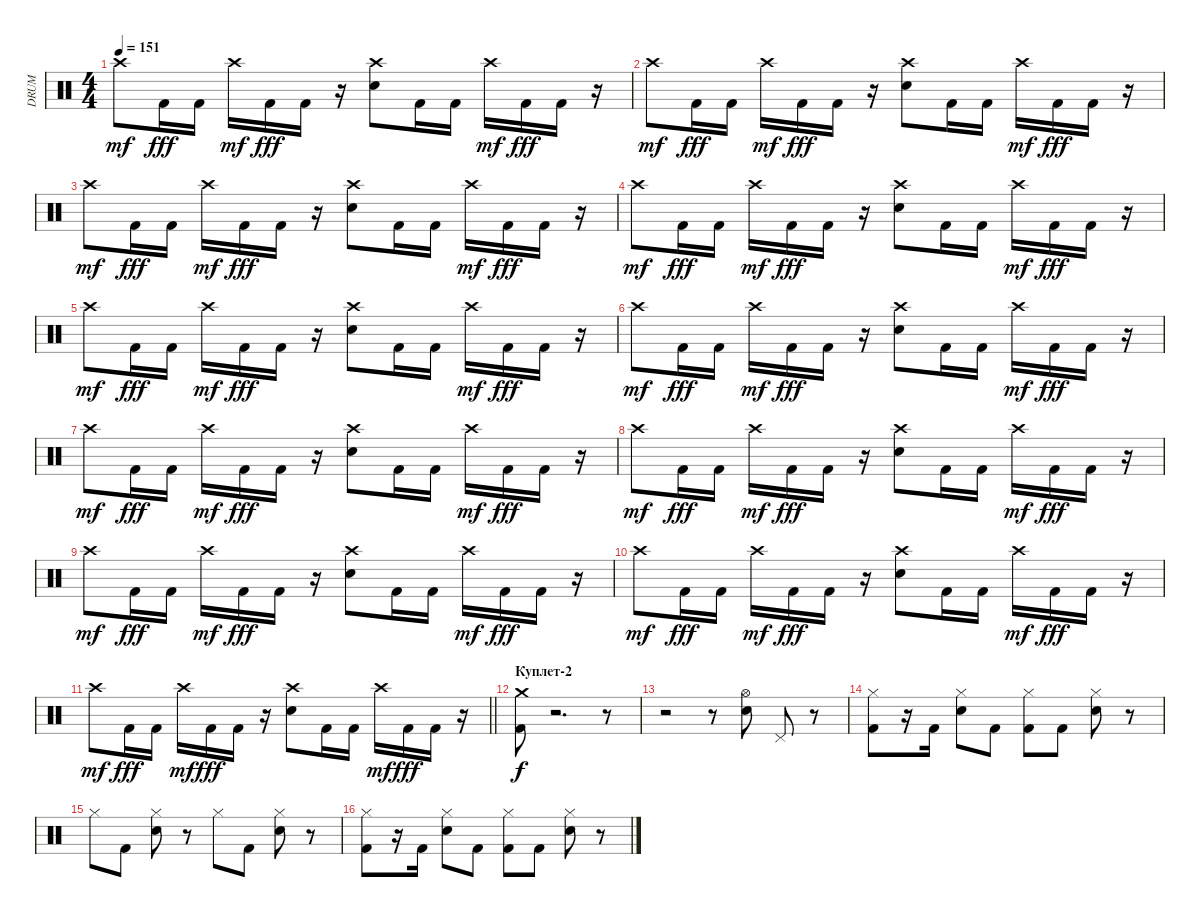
\track ("DRUM" "DRUM") {instrument percussion}
\staff {score}
\articulation defaults
\ts (4 4)
\tempo 151
\clef neutral
\ks c "Crash high (hit)".8{dy mf} "Kick (hit) 2".16{dy fff} "Kick (hit) 2".16 "Crash high (hit)".16{dy mf} "Kick (hit) 2".16{dy fff} "Kick (hit) 2".16
r.16 ("Crash high (hit)" "Electric Snare (hit)").8 "Kick (hit) 2".16 "Kick (hit) 2".16 "Crash high (hit)".16{dy mf} "Kick (hit) 2".16{dy fff} "Kick (hit) 2".16 r.16 |
"Crash high (hit)".8{dy mf} "Kick (hit) 2".16{dy fff} "Kick (hit) 2".16 "Crash high (hit)".16{dy mf} "Kick (hit) 2".16{dy fff} "Kick (hit) 2".16 r.16 ("Crash high (hit)" "Electric Snare (hit)").8 "Kick (hit) 2".16 "Kick (hit) 2".16 "Crash high (hit)".16{dy mf} "Kick (hit) 2".16{dy fff} "Kick (hit) 2".16 r.16 |
"Crash high (hit)".8{dy mf} "Kick (hit) 2".16{dy fff} "Kick (hit) 2".16 "Crash high (hit)".16{dy mf} "Kick (hit) 2".16{dy fff} "Kick (hit) 2".16 r.16 ("Crash high (hit)" "Electric Snare (hit)").8 "Kick (hit) 2".16 "Kick (hit) 2".16 "Crash high (hit)".16{dy mf} "Kick (hit) 2".16{dy fff} "Kick (hit) 2".16 r.16 |
"Crash high (hit)".8{dy mf} "Kick (hit) 2".16{dy fff} "Kick (hit) 2".16 "Crash high (hit)".16{dy mf} "Kick (hit) 2".16{dy fff} "Kick (hit) 2".16 r.16 ("Crash high (hit)" "Electric Snare (hit)").8 "Kick (hit) 2".16 "Kick (hit) 2".16 "Crash high (hit)".16{dy mf} "Kick (hit) 2".16{dy fff} "Kick (hit) 2".16 r.16 |
"Crash high (hit)".8{dy mf} "Kick (hit) 2".16{dy fff} "Kick (hit) 2".16 "Crash high (hit)".16{dy mf} "Kick (hit) 2".16{dy fff} "Kick (hit) 2".16 r.16 ("Crash high (hit)" "Electric Snare (hit)").8 "Kick (hit) 2".16 "Kick (hit) 2".16 "Crash high (hit)".16{dy mf} "Kick (hit) 2".16{dy fff} "Kick (hit) 2".16 r.16 |
"Crash high (hit)".8{dy mf} "Kick (hit) 2".16{dy fff} "Kick (hit) 2".16 "Crash high (hit)".16{dy mf} "Kick (hit) 2".16{dy fff} "Kick (hit) 2".16 r.16 ("Crash high (hit)" "Electric Snare (hit)").8 "Kick (hit) 2".16 "Kick (hit) 2".16 "Crash high (hit)".16{dy mf} "Kick (hit) 2".16{dy fff} "Kick (hit) 2".16 r.16 |
"Crash high (hit)".8{dy mf} "Kick (hit) 2".16{dy fff} "Kick (hit) 2".16 "Crash high (hit)".16{dy mf} "Kick (hit) 2".16{dy fff} "Kick (hit) 2".16 r.16 ("Crash high (hit)" "Electric Snare (hit)").8 "Kick (hit) 2".16 "Kick (hit) 2".16 "Crash high (hit)".16{dy mf} "Kick (hit) 2".16{dy fff} "Kick (hit) 2".16 r.16 |
"Crash high (hit)".8{dy mf} "Kick (hit) 2".16{dy fff} "Kick (hit) 2".16 "Crash high (hit)".16{dy mf} "Kick (hit) 2".16{dy fff} "Kick (hit) 2".16 r.16 ("Crash high (hit)" "Electric Snare (hit)").8 "Kick (hit) 2".16 "Kick (hit) 2".16 "Crash high (hit)".16{dy mf} "Kick (hit) 2".16{dy fff} "Kick (hit) 2".16 r.16 |
"Crash high (hit)".8{dy mf} "Kick (hit) 2".16{dy fff} "Kick (hit) 2".16 "Crash high (hit)".16{dy mf} "Kick (hit) 2".16{dy fff} "Kick (hit) 2".16 r.16 ("Crash high (hit)" "Electric Snare (hit)").8 "Kick (hit) 2".16 "Kick (hit) 2".16 "Crash high (hit)".16{dy mf} "Kick (hit) 2".16{dy fff} "Kick (hit) 2".16 r.16 |
"Crash high (hit)".8{dy mf} "Kick (hit) 2".16{dy fff} "Kick (hit) 2".16 "Crash high (hit)".16{dy mf} "Kick (hit) 2".16{dy fff} "Kick (hit) 2".16 r.16 ("Crash high (hit)" "Electric Snare (hit)").8 "Kick (hit) 2".16 "Kick (hit) 2".16 "Crash high (hit)".16{dy mf} "Kick (hit) 2".16{dy fff} "Kick (hit) 2".16 r.16 |
\barLineRight lightlight "Crash high (hit)".8{dy mf} "Kick (hit) 2".16{dy fff} "Kick (hit) 2".16 "Crash high (hit)".16{dy mf} "Kick (hit) 2".16{dy fff} "Kick (hit) 2".16
r.16 ("Crash high (hit)" "Electric Snare (hit)").8 "Kick (hit) 2".16 "Kick (hit) 2".16 "Crash high (hit)".16{dy mf} "Kick (hit) 2".16{dy fff} "Kick (hit) 2".16 r.16 |
\section ("" "Куплет-2")
("Kick (hit) 2" "Crash medium (hit)").8{dy f} r.2{d} r.8 |
r.2 r.8 ("Hi-Hat (open)" "Snare (hit) 2").8 "Pedal Hi-Hat (hit)".8 r.8 |
("Kick (hit) 2" "Hi-Hat (closed)").8 r.16 "Kick (hit) 2".16 ("Snare (hit) 2" "Hi-Hat (closed)").8 "Kick (hit) 2".8 ("Kick (hit) 2" "Hi-Hat (closed)").8 "Kick (hit) 2".8 ("Snare (hit) 2" "Hi-Hat (closed)").8 r.8 |
"Hi-Hat (closed)".8 "Kick (hit) 2".8 ("Snare (hit) 2" "Hi-Hat (closed)").8 r.8 "Hi-Hat (closed)".8 "Kick (hit) 2".8 ("Snare (hit) 2" "Hi-Hat (closed)").8 r.8 |
("Kick (hit) 2" "Hi-Hat (closed)").8 r.16 "Kick (hit) 2".16 ("Snare (hit) 2" "Hi-Hat (closed)").8 "Kick (hit) 2".8 ("Kick (hit) 2" "Hi-Hat (closed)").8 "Kick (hit) 2".8 ("Snare (hit) 2" "Hi-Hat (closed)").8 r.8
